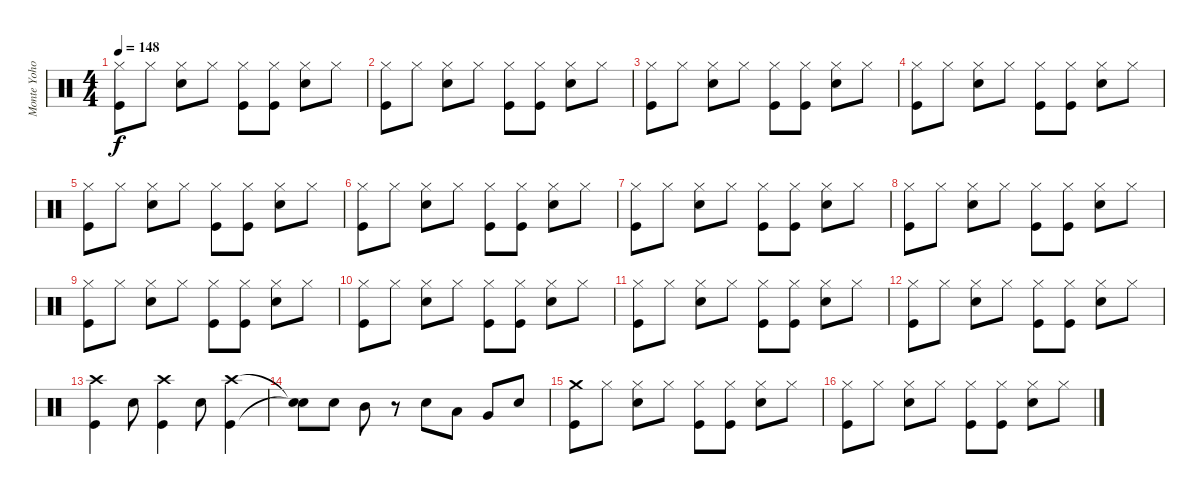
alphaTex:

\track ("Monte Yoho Drums" "Monte Yoho") {instrument percussion}
\staff {score}
\articulation defaults
\ts (4 4)
\tempo 148
\clef neutral
\ks c
("Hi-Hat (closed)" "Kick (hit)").8{dy f} "Hi-Hat (closed)".8 ("Hi-Hat (closed)" "Snare (hit) 2").8 "Hi-Hat (closed)".8 ("Hi-Hat (closed)" "Kick (hit)").8 ("Hi-Hat (closed)" "Kick (hit)").8 ("Hi-Hat (closed)" "Snare (hit) 2").8 "Hi-Hat (closed)".8 |
("Hi-Hat (closed)" "Kick (hit)").8 "Hi-Hat (closed)".8 ("Hi-Hat (closed)" "Snare (hit) 2").8 "Hi-Hat (closed)".8 ("Hi-Hat (closed)" "Kick (hit)").8 ("Hi-Hat (closed)" "Kick (hit)").8 ("Hi-Hat (closed)" "Snare (hit) 2").8 "Hi-Hat (closed)".8 |
("Hi-Hat (closed)" "Kick (hit)").8 "Hi-Hat (closed)".8 ("Hi-Hat (closed)" "Snare (hit) 2").8 "Hi-Hat (closed)".8 ("Hi-Hat (closed)" "Kick (hit)").8 ("Hi-Hat (closed)" "Kick (hit)").8 ("Hi-Hat (closed)" "Snare (hit) 2").8 "Hi-Hat (closed)".8 |
("Hi-Hat (closed)" "Kick (hit)").8 "Hi-Hat (closed)".8 ("Hi-Hat (closed)" "Snare (hit) 2").8 "Hi-Hat (closed)".8 ("Hi-Hat (closed)" "Kick (hit)").8 ("Hi-Hat (closed)" "Kick (hit)").8 ("Hi-Hat (closed)" "Snare (hit) 2").8 "Hi-Hat (closed)".8 |
("Hi-Hat (closed)" "Kick (hit)").8 "Hi-Hat (closed)".8 ("Hi-Hat (closed)" "Snare (hit) 2").8 "Hi-Hat (closed)".8 ("Hi-Hat (closed)" "Kick (hit)").8 ("Hi-Hat (closed)" "Kick (hit)").8 ("Hi-Hat (closed)" "Snare (hit) 2").8 "Hi-Hat (closed)".8 |
("Hi-Hat (closed)" "Kick (hit)").8 "Hi-Hat (closed)".8 ("Hi-Hat (closed)" "Snare (hit) 2").8 "Hi-Hat (closed)".8 ("Hi-Hat (closed)" "Kick (hit)").8 ("Hi-Hat (closed)" "Kick (hit)").8 ("Hi-Hat (closed)" "Snare (hit) 2").8 "Hi-Hat (closed)".8 |
("Hi-Hat (closed)" "Kick (hit)").8 "Hi-Hat (closed)".8 ("Hi-Hat (closed)" "Snare (hit) 2").8 "Hi-Hat (closed)".8 ("Hi-Hat (closed)" "Kick (hit)").8 ("Hi-Hat (closed)" "Kick (hit)").8 ("Hi-Hat (closed)" "Snare (hit) 2").8 "Hi-Hat (closed)".8 |
("Hi-Hat (closed)" "Kick (hit)").8 "Hi-Hat (closed)".8 ("Hi-Hat (closed)" "Snare (hit) 2").8 "Hi-Hat (closed)".8 ("Hi-Hat (closed)" "Kick (hit)").8 ("Hi-Hat (closed)" "Kick (hit)").8 ("Hi-Hat (closed)" "Snare (hit) 2").8 "Hi-Hat (closed)".8 |
("Hi-Hat (closed)" "Kick (hit)").8 "Hi-Hat (closed)".8 ("Hi-Hat (closed)" "Snare (hit) 2").8 "Hi-Hat (closed)".8 ("Hi-Hat (closed)" "Kick (hit)").8 ("Hi-Hat (closed)" "Kick (hit)").8 ("Hi-Hat (closed)" "Snare (hit) 2").8 "Hi-Hat (closed)".8 |
("Hi-Hat (closed)" "Kick (hit)").8 "Hi-Hat (closed)".8 ("Hi-Hat (closed)" "Snare (hit) 2").8 "Hi-Hat (closed)".8 ("Hi-Hat (closed)" "Kick (hit)").8 ("Hi-Hat (closed)" "Kick (hit)").8 ("Hi-Hat (closed)" "Snare (hit) 2").8 "Hi-Hat (closed)".8 |
("Hi-Hat (closed)" "Kick (hit)").8 "Hi-Hat (closed)".8 ("Hi-Hat (closed)" "Snare (hit) 2").8 "Hi-Hat (closed)".8 ("Hi-Hat (closed)" "Kick (hit)").8 ("Hi-Hat (closed)" "Kick (hit)").8 ("Hi-Hat (closed)" "Snare (hit) 2").8 "Hi-Hat (closed)".8 |
("Hi-Hat (closed)" "Kick (hit)").8 "Hi-Hat (closed)".8 ("Hi-Hat (closed)" "Snare (hit) 2").8 "Hi-Hat (closed)".8 ("Hi-Hat (closed)" "Kick (hit)").8 ("Hi-Hat (closed)" "Kick (hit)").8 ("Hi-Hat (closed)" "Snare (hit) 2").8 "Hi-Hat (closed)".8 |
("Crash high (hit)" "Kick (hit)").4 "Snare (hit) 2".8 ("Crash high (hit)" "Kick (hit)").4 "Snare (hit) 2".8 ("Crash high (hit)" "Kick (hit)").4 |
("Snare (hit)"{t} "Snare (hit)"{t}).8 "Snare (hit) 2".8 "Mid Tom (hit)".8 r.8 "Snare (hit) 2".8 "Low Tom (hit)".8 "Very Low Tom (hit)".8 "Snare (hit) 2".8 |
("Crash medium (hit)" "Kick (hit)").8 "Hi-Hat (closed)".8 ("Hi-Hat (closed)" "Snare (hit) 2").8 "Hi-Hat (closed)".8 ("Hi-Hat (closed)" "Kick (hit)").8 ("Hi-Hat (closed)" "Kick (hit)").8 ("Hi-Hat (closed)" "Snare (hit) 2").8 "Hi-Hat (closed)".8 |
("Hi-Hat (closed)" "Kick (hit)").8 "Hi-Hat (closed)".8 ("Hi-Hat (closed)" "Snare (hit) 2").8 "Hi-Hat (closed)".8 ("Hi-Hat (closed)" "Kick (hit)").8 ("Hi-Hat (closed)" "Kick (hit)").8 ("Hi-Hat (closed)" "Snare (hit) 2").8 "Hi-Hat (closed)".8
